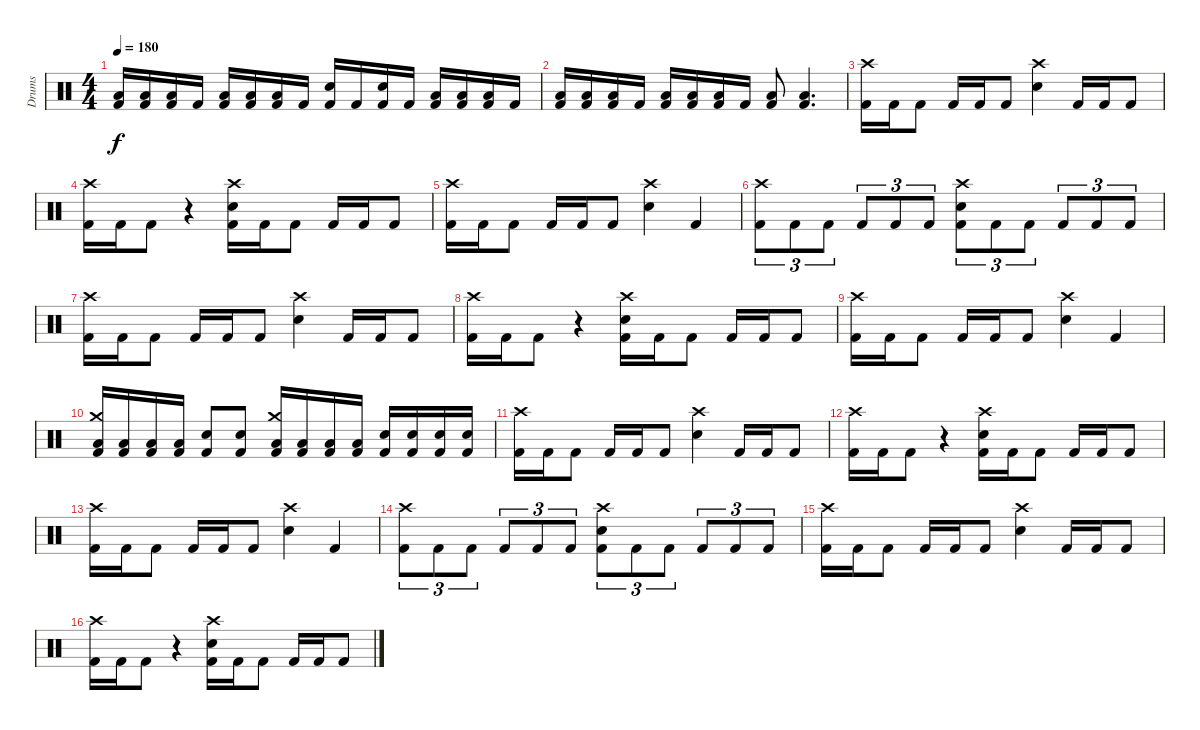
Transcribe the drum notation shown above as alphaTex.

\track ("Drums" "Drums") {instrument percussion}
\staff {score}
\articulation defaults
\ts (4 4)
\tempo 180
\clef neutral
\ks c
("Low Tom (hit)" "Kick (hit) 2").16{dy f} ("Low Tom (hit)" "Kick (hit) 2").16 ("Low Tom (hit)" "Kick (hit) 2").16 "Kick (hit) 2".16 ("Low Tom (hit)" "Kick (hit) 2").16 ("Low Tom (hit)" "Kick (hit) 2").16 ("Low Tom (hit)" "Kick (hit) 2").16 "Kick (hit) 2".16 ("Electric Snare (hit)" "Kick (hit) 2").16 "Kick (hit) 2".16 ("Electric Snare (hit)" "Kick (hit) 2").16 "Kick (hit) 2".16 ("Low Tom (hit)" "Kick (hit) 2").16 ("Low Tom (hit)" "Kick (hit) 2").16 ("Low Tom (hit)" "Kick (hit) 2").16 "Kick (hit) 2".16 |
("Low Tom (hit)" "Kick (hit) 2").16 ("Low Tom (hit)" "Kick (hit) 2").16 ("Low Tom (hit)" "Kick (hit) 2").16 "Kick (hit) 2".16 ("Low Tom (hit)" "Kick (hit) 2").16 ("Low Tom (hit)" "Kick (hit) 2").16 ("Low Tom (hit)" "Kick (hit) 2").16 "Kick (hit) 2".16 ("Low Tom (hit)" "Kick (hit) 2").8 ("Low Tom (hit)" "Kick (hit) 2").4{d} |
("Crash high (hit)" "Kick (hit) 2").16 "Kick (hit) 2".16 "Kick (hit) 2".8 "Kick (hit) 2".16 "Kick (hit) 2".16 "Kick (hit) 2".8 ("Crash high (hit)" "Electric Snare (hit)").4 "Kick (hit) 2".16 "Kick (hit) 2".16 "Kick (hit) 2".8 |
("Crash high (hit)" "Kick (hit) 2").16 "Kick (hit) 2".16 "Kick (hit) 2".8 r.4 ("Crash high (hit)" "Electric Snare (hit)" "Kick (hit) 2").16 "Kick (hit) 2".16 "Kick (hit) 2".8 "Kick (hit) 2".16 "Kick (hit) 2".16 "Kick (hit) 2".8 |
("Crash high (hit)" "Kick (hit) 2").16 "Kick (hit) 2".16 "Kick (hit) 2".8 "Kick (hit) 2".16 "Kick (hit) 2".16 "Kick (hit) 2".8 ("Crash high (hit)" "Electric Snare (hit)").4 "Kick (hit) 2".4 |
("Crash high (hit)" "Kick (hit) 2").8{tu (3 2)} "Kick (hit) 2".8{tu (3 2)} "Kick (hit) 2".8{tu (3 2)} "Kick (hit) 2".8{tu (3 2)} "Kick (hit) 2".8{tu (3 2)} "Kick (hit) 2".8{tu (3 2)} ("Crash high (hit)" "Electric Snare (hit)" "Kick (hit) 2").8{tu (3 2)} "Kick (hit) 2".8{tu (3 2)} "Kick (hit) 2".8{tu (3 2)} "Kick (hit) 2".8{tu (3 2)} "Kick (hit) 2".8{tu (3 2)} "Kick (hit) 2".8{tu (3 2)} |
("Crash high (hit)" "Kick (hit) 2").16 "Kick (hit) 2".16 "Kick (hit) 2".8 "Kick (hit) 2".16 "Kick (hit) 2".16 "Kick (hit) 2".8 ("Crash high (hit)" "Electric Snare (hit)").4 "Kick (hit) 2".16 "Kick (hit) 2".16 "Kick (hit) 2".8 |
("Crash high (hit)" "Kick (hit) 2").16 "Kick (hit) 2".16 "Kick (hit) 2".8 r.4 ("Crash high (hit)" "Electric Snare (hit)" "Kick (hit) 2").16 "Kick (hit) 2".16 "Kick (hit) 2".8 "Kick (hit) 2".16 "Kick (hit) 2".16 "Kick (hit) 2".8 |
("Crash high (hit)" "Kick (hit) 2").16 "Kick (hit) 2".16 "Kick (hit) 2".8 "Kick (hit) 2".16 "Kick (hit) 2".16 "Kick (hit) 2".8 ("Crash high (hit)" "Electric Snare (hit)").4 "Kick (hit) 2".4 |
("Crash medium (hit)" "Low Floor Tom (hit)" "Kick (hit) 2").16 ("Low Floor Tom (hit)" "Kick (hit) 2").16 ("Low Floor Tom (hit)" "Kick (hit) 2").16 ("Low Floor Tom (hit)" "Kick (hit) 2").16 ("Electric Snare (hit)" "Kick (hit) 2").8 ("Electric Snare (hit)" "Kick (hit) 2").8 ("Crash medium (hit)" "Low Floor Tom (hit)" "Kick (hit) 2").16 ("Low Floor Tom (hit)" "Kick (hit) 2").16 ("Low Floor Tom (hit)" "Kick (hit) 2").16 ("Low Floor Tom (hit)" "Kick (hit) 2").16 ("Electric Snare (hit)" "Kick (hit) 2").16 ("Electric Snare (hit)" "Kick (hit) 2").16 ("Electric Snare (hit)" "Kick (hit) 2").16 ("Electric Snare (hit)" "Kick (hit) 2").16 |
("Crash high (hit)" "Kick (hit) 2").16 "Kick (hit) 2".16 "Kick (hit) 2".8 "Kick (hit) 2".16 "Kick (hit) 2".16 "Kick (hit) 2".8 ("Crash high (hit)" "Electric Snare (hit)").4 "Kick (hit) 2".16 "Kick (hit) 2".16 "Kick (hit) 2".8 |
("Crash high (hit)" "Kick (hit) 2").16 "Kick (hit) 2".16 "Kick (hit) 2".8 r.4 ("Crash high (hit)" "Electric Snare (hit)" "Kick (hit) 2").16 "Kick (hit) 2".16 "Kick (hit) 2".8 "Kick (hit) 2".16 "Kick (hit) 2".16 "Kick (hit) 2".8 |
("Crash high (hit)" "Kick (hit) 2").16 "Kick (hit) 2".16 "Kick (hit) 2".8 "Kick (hit) 2".16 "Kick (hit) 2".16 "Kick (hit) 2".8 ("Crash high (hit)" "Electric Snare (hit)").4 "Kick (hit) 2".4 |
("Crash high (hit)" "Kick (hit) 2").8{tu (3 2)} "Kick (hit) 2".8{tu (3 2)} "Kick (hit) 2".8{tu (3 2)} "Kick (hit) 2".8{tu (3 2)} "Kick (hit) 2".8{tu (3 2)} "Kick (hit) 2".8{tu (3 2)} ("Crash high (hit)" "Electric Snare (hit)" "Kick (hit) 2").8{tu (3 2)} "Kick (hit) 2".8{tu (3 2)} "Kick (hit) 2".8{tu (3 2)} "Kick (hit) 2".8{tu (3 2)} "Kick (hit) 2".8{tu (3 2)} "Kick (hit) 2".8{tu (3 2)} |
("Crash high (hit)" "Kick (hit) 2").16 "Kick (hit) 2".16 "Kick (hit) 2".8 "Kick (hit) 2".16 "Kick (hit) 2".16 "Kick (hit) 2".8 ("Crash high (hit)" "Electric Snare (hit)").4 "Kick (hit) 2".16 "Kick (hit) 2".16 "Kick (hit) 2".8 |
("Crash high (hit)" "Kick (hit) 2").16 "Kick (hit) 2".16 "Kick (hit) 2".8 r.4 ("Crash high (hit)" "Electric Snare (hit)" "Kick (hit) 2").16 "Kick (hit) 2".16 "Kick (hit) 2".8 "Kick (hit) 2".16 "Kick (hit) 2".16 "Kick (hit) 2".8
